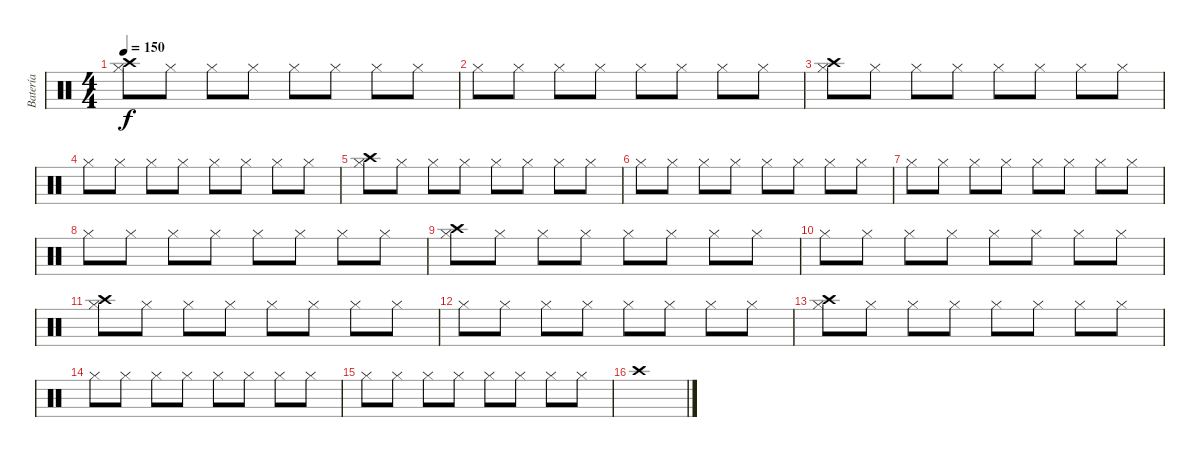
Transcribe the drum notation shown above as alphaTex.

\track ("Batería" "Batería") {instrument percussion}
\staff {score}
\articulation defaults
\ts (4 4)
\tempo 150
\clef neutral
\ks c
("Hi-Hat (closed)" "Crash high (hit)").8{dy f} "Hi-Hat (closed)".8 "Hi-Hat (closed)".8 "Hi-Hat (closed)".8 "Hi-Hat (closed)".8 "Hi-Hat (closed)".8 "Hi-Hat (closed)".8 "Hi-Hat (closed)".8 |
"Hi-Hat (closed)".8 "Hi-Hat (closed)".8 "Hi-Hat (closed)".8 "Hi-Hat (closed)".8 "Hi-Hat (closed)".8 "Hi-Hat (closed)".8 "Hi-Hat (closed)".8 "Hi-Hat (closed)".8 |
("Hi-Hat (closed)" "Crash high (hit)").8 "Hi-Hat (closed)".8 "Hi-Hat (closed)".8 "Hi-Hat (closed)".8 "Hi-Hat (closed)".8 "Hi-Hat (closed)".8 "Hi-Hat (closed)".8 "Hi-Hat (closed)".8 |
"Hi-Hat (closed)".8 "Hi-Hat (closed)".8 "Hi-Hat (closed)".8 "Hi-Hat (closed)".8 "Hi-Hat (closed)".8 "Hi-Hat (closed)".8 "Hi-Hat (closed)".8 "Hi-Hat (closed)".8 |
("Hi-Hat (closed)" "Crash high (hit)").8 "Hi-Hat (closed)".8 "Hi-Hat (closed)".8 "Hi-Hat (closed)".8 "Hi-Hat (closed)".8 "Hi-Hat (closed)".8 "Hi-Hat (closed)".8 "Hi-Hat (closed)".8 |
"Hi-Hat (closed)".8 "Hi-Hat (closed)".8 "Hi-Hat (closed)".8 "Hi-Hat (closed)".8 "Hi-Hat (closed)".8 "Hi-Hat (closed)".8 "Hi-Hat (closed)".8 "Hi-Hat (closed)".8 |
"Hi-Hat (closed)".8 "Hi-Hat (closed)".8 "Hi-Hat (closed)".8 "Hi-Hat (closed)".8 "Hi-Hat (closed)".8 "Hi-Hat (closed)".8 "Hi-Hat (closed)".8 "Hi-Hat (closed)".8 |
"Hi-Hat (closed)".8 "Hi-Hat (closed)".8 "Hi-Hat (closed)".8 "Hi-Hat (closed)".8 "Hi-Hat (closed)".8 "Hi-Hat (closed)".8 "Hi-Hat (closed)".8 "Hi-Hat (closed)".8 |
("Hi-Hat (closed)" "Crash high (hit)").8 "Hi-Hat (closed)".8 "Hi-Hat (closed)".8 "Hi-Hat (closed)".8 "Hi-Hat (closed)".8 "Hi-Hat (closed)".8 "Hi-Hat (closed)".8 "Hi-Hat (closed)".8 |
"Hi-Hat (closed)".8 "Hi-Hat (closed)".8 "Hi-Hat (closed)".8 "Hi-Hat (closed)".8 "Hi-Hat (closed)".8 "Hi-Hat (closed)".8 "Hi-Hat (closed)".8 "Hi-Hat (closed)".8 |
("Hi-Hat (closed)" "Crash high (hit)").8 "Hi-Hat (closed)".8 "Hi-Hat (closed)".8 "Hi-Hat (closed)".8 "Hi-Hat (closed)".8 "Hi-Hat (closed)".8 "Hi-Hat (closed)".8 "Hi-Hat (closed)".8 |
"Hi-Hat (closed)".8 "Hi-Hat (closed)".8 "Hi-Hat (closed)".8 "Hi-Hat (closed)".8 "Hi-Hat (closed)".8 "Hi-Hat (closed)".8 "Hi-Hat (closed)".8 "Hi-Hat (closed)".8 |
("Hi-Hat (closed)" "Crash high (hit)").8 "Hi-Hat (closed)".8 "Hi-Hat (closed)".8 "Hi-Hat (closed)".8 "Hi-Hat (closed)".8 "Hi-Hat (closed)".8 "Hi-Hat (closed)".8 "Hi-Hat (closed)".8 |
"Hi-Hat (closed)".8 "Hi-Hat (closed)".8 "Hi-Hat (closed)".8 "Hi-Hat (closed)".8 "Hi-Hat (closed)".8 "Hi-Hat (closed)".8 "Hi-Hat (closed)".8 "Hi-Hat (closed)".8 |
"Hi-Hat (closed)".8 "Hi-Hat (closed)".8 "Hi-Hat (closed)".8 "Hi-Hat (closed)".8 "Hi-Hat (closed)".8 "Hi-Hat (closed)".8 "Hi-Hat (closed)".8 "Hi-Hat (closed)".8 |
"Crash high (hit)".1
